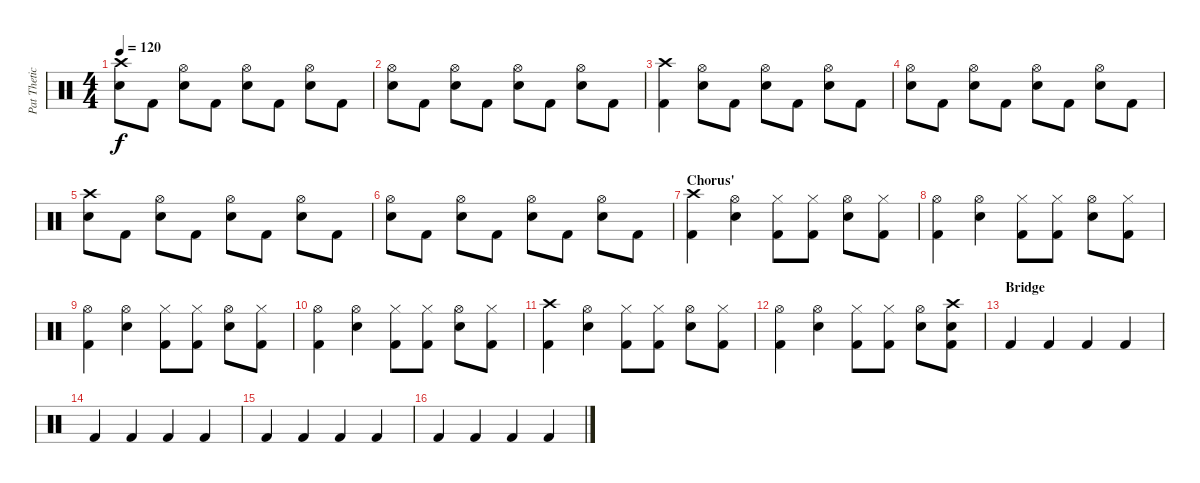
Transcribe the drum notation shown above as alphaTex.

\track ("Pat Thetic (Drums)" "Pat Thetic") {instrument percussion}
\staff {score}
\articulation defaults
\ts (4 4)
\tempo 120
\clef neutral
\ks c
("Crash high (hit)" "Electric Snare (hit)").8{dy f} "Kick (hit) 2".8 ("Hi-Hat (open)" "Electric Snare (hit)").8 "Kick (hit) 2".8 ("Hi-Hat (open)" "Electric Snare (hit)").8 "Kick (hit) 2".8 ("Hi-Hat (open)" "Electric Snare (hit)").8 "Kick (hit) 2".8 |
("Hi-Hat (open)" "Electric Snare (hit)").8 "Kick (hit) 2".8 ("Hi-Hat (open)" "Electric Snare (hit)").8 "Kick (hit) 2".8 ("Hi-Hat (open)" "Electric Snare (hit)").8 "Kick (hit) 2".8 ("Hi-Hat (open)" "Electric Snare (hit)").8 "Kick (hit) 2".8 |
("Crash high (hit)" "Kick (hit) 2").4 ("Hi-Hat (open)" "Electric Snare (hit)").8 "Kick (hit) 2".8 ("Hi-Hat (open)" "Electric Snare (hit)").8 "Kick (hit) 2".8 ("Hi-Hat (open)" "Electric Snare (hit)").8 "Kick (hit) 2".8 |
("Hi-Hat (open)" "Electric Snare (hit)").8 "Kick (hit) 2".8 ("Hi-Hat (open)" "Electric Snare (hit)").8 "Kick (hit) 2".8 ("Hi-Hat (open)" "Electric Snare (hit)").8 "Kick (hit) 2".8 ("Hi-Hat (open)" "Electric Snare (hit)").8 "Kick (hit) 2".8 |
("Crash high (hit)" "Electric Snare (hit)").8 "Kick (hit) 2".8 ("Hi-Hat (open)" "Electric Snare (hit)").8 "Kick (hit) 2".8 ("Hi-Hat (open)" "Electric Snare (hit)").8 "Kick (hit) 2".8 ("Hi-Hat (open)" "Electric Snare (hit)").8 "Kick (hit) 2".8 |
("Hi-Hat (open)" "Electric Snare (hit)").8 "Kick (hit) 2".8 ("Hi-Hat (open)" "Electric Snare (hit)").8 "Kick (hit) 2".8 ("Hi-Hat (open)" "Electric Snare (hit)").8 "Kick (hit) 2".8 ("Hi-Hat (open)" "Electric Snare (hit)").8 "Kick (hit) 2".8 |
\section ("" "Chorus'")
("Crash high (hit)" "Kick (hit) 2").4 ("Hi-Hat (open)" "Electric Snare (hit)").4 ("Hi-Hat (closed)" "Kick (hit) 2").8 ("Hi-Hat (closed)" "Kick (hit) 2").8 ("Hi-Hat (open)" "Electric Snare (hit)").8 ("Hi-Hat (closed)" "Kick (hit) 2").8 |
("Hi-Hat (open)" "Kick (hit) 2").4 ("Hi-Hat (open)" "Electric Snare (hit)").4 ("Hi-Hat (closed)" "Kick (hit) 2").8 ("Hi-Hat (closed)" "Kick (hit) 2").8 ("Hi-Hat (open)" "Electric Snare (hit)").8 ("Hi-Hat (closed)" "Kick (hit) 2").8 |
("Hi-Hat (open)" "Kick (hit) 2").4 ("Hi-Hat (open)" "Electric Snare (hit)").4 ("Hi-Hat (closed)" "Kick (hit) 2").8 ("Hi-Hat (closed)" "Kick (hit) 2").8 ("Hi-Hat (open)" "Electric Snare (hit)").8 ("Hi-Hat (closed)" "Kick (hit) 2").8 |
("Hi-Hat (open)" "Kick (hit) 2").4 ("Hi-Hat (open)" "Electric Snare (hit)").4 ("Hi-Hat (closed)" "Kick (hit) 2").8 ("Hi-Hat (closed)" "Kick (hit) 2").8 ("Hi-Hat (open)" "Electric Snare (hit)").8 ("Hi-Hat (closed)" "Kick (hit) 2").8 |
("Crash high (hit)" "Kick (hit) 2").4 ("Hi-Hat (open)" "Electric Snare (hit)").4 ("Hi-Hat (closed)" "Kick (hit) 2").8 ("Hi-Hat (closed)" "Kick (hit) 2").8 ("Hi-Hat (open)" "Electric Snare (hit)").8 ("Hi-Hat (closed)" "Kick (hit) 2").8 |
("Hi-Hat (open)" "Kick (hit) 2").4 ("Hi-Hat (open)" "Electric Snare (hit)").4 ("Hi-Hat (closed)" "Kick (hit) 2").8 ("Hi-Hat (closed)" "Kick (hit) 2").8 ("Hi-Hat (open)" "Electric Snare (hit)").8 ("Crash high (hit)" "Electric Snare (hit)" "Kick (hit) 2").8 |
\section ("" "Bridge")
"Kick (hit) 2".4 "Kick (hit) 2".4 "Kick (hit) 2".4 "Kick (hit) 2".4 |
"Kick (hit) 2".4 "Kick (hit) 2".4 "Kick (hit) 2".4 "Kick (hit) 2".4 |
"Kick (hit) 2".4 "Kick (hit) 2".4 "Kick (hit) 2".4 "Kick (hit) 2".4 |
"Kick (hit) 2".4 "Kick (hit) 2".4 "Kick (hit) 2".4 "Kick (hit) 2".4
